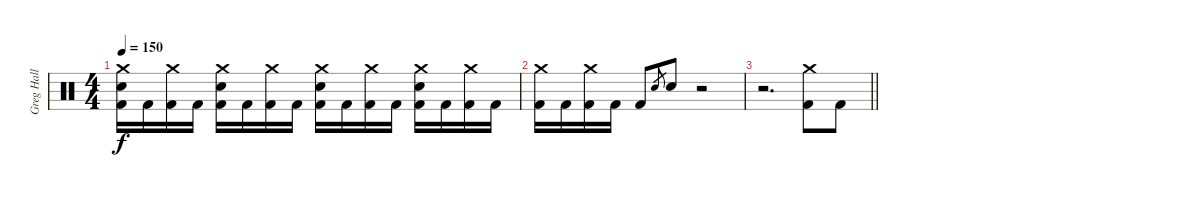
\track ("Greg Hall" "Greg Hall") {instrument percussion}
\staff {score}
\articulation defaults
\ts (4 4)
\tempo 150
\clef neutral
\ks c
("Crash medium (hit)" "Electric Snare (hit)" "Kick (hit) 2").16{dy f} "Kick (hit) 2".16 ("Crash medium (hit)" "Kick (hit) 2").16 "Kick (hit) 2".16 ("Crash medium (hit)" "Electric Snare (hit)" "Kick (hit) 2").16 "Kick (hit) 2".16 ("Crash medium (hit)" "Kick (hit) 2").16 "Kick (hit) 2".16 ("Crash medium (hit)" "Electric Snare (hit)" "Kick (hit) 2").16 "Kick (hit) 2".16 ("Crash medium (hit)" "Kick (hit) 2").16 "Kick (hit) 2".16 ("Crash medium (hit)" "Electric Snare (hit)" "Kick (hit) 2").16 "Kick (hit) 2".16 ("Crash medium (hit)" "Kick (hit) 2").16 "Kick (hit) 2".16 |
("Crash medium (hit)" "Kick (hit) 2").16 "Kick (hit) 2".16 ("Crash medium (hit)" "Kick (hit) 2").16 "Kick (hit) 2".16 "Kick (hit) 2".8 "Electric Snare (hit)".8{gr} "Electric Snare (hit)".8 r.2 |
\barLineRight lightlight
r.2{d} ("Crash medium (hit)" "Kick (hit) 2").8 "Kick (hit) 2".8
